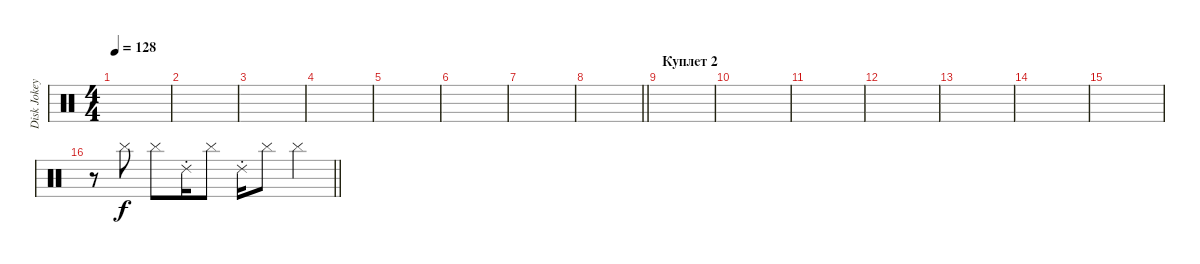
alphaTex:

\track ("Disk Jokey" "Disk Jokey") {instrument percussion}
\staff {score}
\articulation defaults
\ts (4 4)
\tempo 128
\clef neutral
\ks c
|
|
|
|
|
|
|
\barLineRight lightlight
|
\section ("" "Куплет 2")
|
|
|
|
|
|
|
\barLineRight lightlight
r.8 "Cymbal (hit)".8 "Cymbal (hit)".8 "Ride (choke) 2".16 "Cymbal (hit)".8 "Ride (choke) 2".16 "Cymbal (hit)".8 "Cymbal (hit)".4
